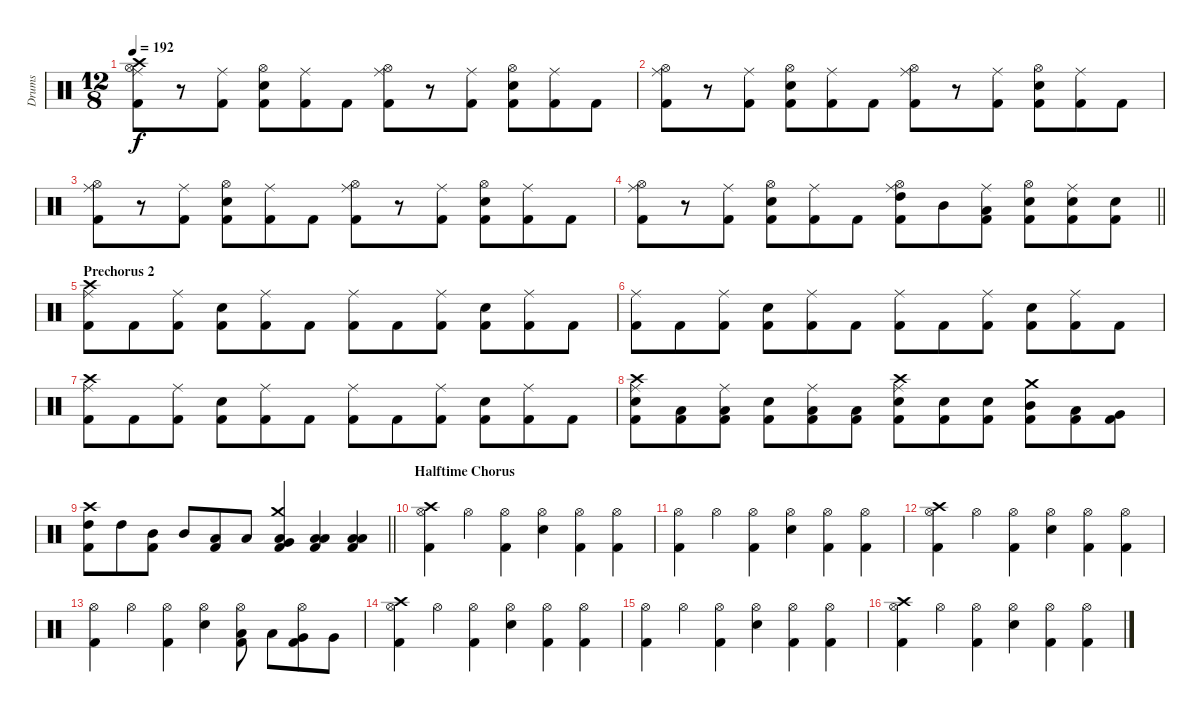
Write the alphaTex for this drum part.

\track ("Drums" "Drums") {instrument percussion}
\staff {score}
\articulation defaults
\ts (12 8)
\tempo 192
\clef neutral
\ks c
("Crash high (hit)" "Ride (middle)" "Hi-Hat (open)" "Kick (hit) 2").8{dy f} r.8 ("Ride (middle)" "Kick (hit) 2").8 ("Hi-Hat (open)" "Snare (hit) 2" "Kick (hit) 2").8 ("Ride (middle)" "Kick (hit) 2").8 "Kick (hit) 2".8 ("Ride (middle)" "Hi-Hat (open)" "Kick (hit) 2").8 r.8 ("Ride (middle)" "Kick (hit) 2").8 ("Hi-Hat (open)" "Snare (hit) 2" "Kick (hit) 2").8 ("Ride (middle)" "Kick (hit) 2").8 "Kick (hit) 2".8 |
("Ride (middle)" "Hi-Hat (open)" "Kick (hit) 2").8 r.8 ("Ride (middle)" "Kick (hit) 2").8 ("Hi-Hat (open)" "Snare (hit) 2" "Kick (hit) 2").8 ("Ride (middle)" "Kick (hit) 2").8 "Kick (hit) 2".8 ("Ride (middle)" "Hi-Hat (open)" "Kick (hit) 2").8 r.8 ("Ride (middle)" "Kick (hit) 2").8 ("Hi-Hat (open)" "Snare (hit) 2" "Kick (hit) 2").8 ("Ride (middle)" "Kick (hit) 2").8 "Kick (hit) 2".8 |
("Ride (middle)" "Hi-Hat (open)" "Kick (hit) 2").8 r.8 ("Ride (middle)" "Kick (hit) 2").8 ("Hi-Hat (open)" "Snare (hit) 2" "Kick (hit) 2").8 ("Ride (middle)" "Kick (hit) 2").8 "Kick (hit) 2".8 ("Ride (middle)" "Hi-Hat (open)" "Kick (hit) 2").8 r.8 ("Ride (middle)" "Kick (hit) 2").8 ("Hi-Hat (open)" "Snare (hit) 2" "Kick (hit) 2").8 ("Ride (middle)" "Kick (hit) 2").8 "Kick (hit) 2".8 |
\barLineRight lightlight
("Ride (middle)" "Hi-Hat (open)" "Kick (hit) 2").8 r.8 ("Ride (middle)" "Kick (hit) 2").8 ("Hi-Hat (open)" "Snare (hit) 2" "Kick (hit) 2").8 ("Ride (middle)" "Kick (hit) 2").8 "Kick (hit) 2".8 ("Ride (middle)" "Hi-Hat (open)" "High Tom (hit)" "Kick (hit) 2").8 "Mid Tom (hit)".8 ("Ride (middle)" "Low Tom (hit)" "Kick (hit) 2").8 ("Hi-Hat (open)" "Snare (hit) 2" "Kick (hit) 2").8 ("Ride (middle)" "Snare (hit) 2" "Kick (hit) 2").8 ("Snare (hit) 2" "Kick (hit) 2").8 |
\section ("" "Prechorus 2")
("Crash high (hit)" "Ride (middle)" "Kick (hit) 2").8 "Kick (hit) 2".8 ("Ride (middle)" "Kick (hit) 2").8 ("Snare (hit) 2" "Kick (hit) 2").8 ("Ride (middle)" "Kick (hit) 2").8 "Kick (hit) 2".8 ("Ride (middle)" "Kick (hit) 2").8 "Kick (hit) 2".8 ("Ride (middle)" "Kick (hit) 2").8 ("Snare (hit) 2" "Kick (hit) 2").8 ("Ride (middle)" "Kick (hit) 2").8 "Kick (hit) 2".8 |
("Ride (middle)" "Kick (hit) 2").8 "Kick (hit) 2".8 ("Ride (middle)" "Kick (hit) 2").8 ("Snare (hit) 2" "Kick (hit) 2").8 ("Ride (middle)" "Kick (hit) 2").8 "Kick (hit) 2".8 ("Ride (middle)" "Kick (hit) 2").8 "Kick (hit) 2".8 ("Ride (middle)" "Kick (hit) 2").8 ("Snare (hit) 2" "Kick (hit) 2").8 ("Ride (middle)" "Kick (hit) 2").8 "Kick (hit) 2".8 |
("Crash high (hit)" "Ride (middle)" "Kick (hit) 2").8 "Kick (hit) 2".8 ("Ride (middle)" "Kick (hit) 2").8 ("Snare (hit) 2" "Kick (hit) 2").8 ("Ride (middle)" "Kick (hit) 2").8 "Kick (hit) 2".8 ("Ride (middle)" "Kick (hit) 2").8 "Kick (hit) 2".8 ("Ride (middle)" "Kick (hit) 2").8 ("Snare (hit) 2" "Kick (hit) 2").8 ("Ride (middle)" "Kick (hit) 2").8 "Kick (hit) 2".8 |
("Crash high (hit)" "Ride (middle)" "Snare (hit) 2" "Kick (hit) 2").8 ("Low Floor Tom (hit)" "Kick (hit) 2").8 ("Ride (middle)" "Low Floor Tom (hit)" "Kick (hit) 2").8 ("Snare (hit) 2" "Kick (hit) 2").8 ("Ride (middle)" "Low Tom (hit)" "Kick (hit) 2").8 ("Low Tom (hit)" "Kick (hit) 2").8 ("Crash high (hit)" "Ride (middle)" "Snare (hit) 2" "Kick (hit) 2").8 ("Snare (hit) 2" "Kick (hit) 2").8 ("Snare (hit) 2" "Kick (hit) 2").8 ("Crash medium (hit)" "Mid Tom (hit)" "Kick (hit) 2").8 ("Low Tom (hit)" "Kick (hit) 2").8 ("Very Low Tom (hit)" "Kick (hit) 2").8 |
\barLineRight lightlight
("Crash high (hit)" "High Tom (hit)" "Kick (hit) 2").8 "High Tom (hit)".8 ("Mid Tom (hit)" "Kick (hit) 2").8 "Mid Tom (hit)".8 ("Low Tom (hit)" "Kick (hit) 2").8 "Low Tom (hit)".8 ("Crash medium (hit)" "Very Low Tom (hit)" "Low Floor Tom (hit)" "Kick (hit) 2").4 ("Low Tom (hit)" "Low Floor Tom (hit)" "Kick (hit) 2").4 ("Low Tom (hit)" "Low Floor Tom (hit)" "Kick (hit) 2").4 |
\section ("" "Halftime Chorus")
("Crash high (hit)" "Hi-Hat (open)" "Kick (hit) 2").4 "Hi-Hat (open)".4 ("Hi-Hat (open)" "Kick (hit) 2").4 ("Hi-Hat (open)" "Snare (hit) 2").4 ("Hi-Hat (open)" "Kick (hit) 2").4 ("Hi-Hat (open)" "Kick (hit) 2").4 |
("Hi-Hat (open)" "Kick (hit) 2").4 "Hi-Hat (open)".4 ("Hi-Hat (open)" "Kick (hit) 2").4 ("Hi-Hat (open)" "Snare (hit) 2").4 ("Hi-Hat (open)" "Kick (hit) 2").4 ("Hi-Hat (open)" "Kick (hit) 2").4 |
("Crash high (hit)" "Hi-Hat (open)" "Kick (hit) 2").4 "Hi-Hat (open)".4 ("Hi-Hat (open)" "Kick (hit) 2").4 ("Hi-Hat (open)" "Snare (hit) 2").4 ("Hi-Hat (open)" "Kick (hit) 2").4 ("Hi-Hat (open)" "Kick (hit) 2").4 |
("Hi-Hat (open)" "Kick (hit) 2").4 "Hi-Hat (open)".4 ("Hi-Hat (open)" "Kick (hit) 2").4 ("Hi-Hat (open)" "Snare (hit) 2").4 ("Hi-Hat (open)" "Low Tom (hit)" "Kick (hit) 2").8 "Low Tom (hit)".8 ("Hi-Hat (open)" "Very Low Tom (hit)" "Kick (hit) 2").8 "Very Low Tom (hit)".8 |
("Crash high (hit)" "Hi-Hat (open)" "Kick (hit) 2").4 "Hi-Hat (open)".4 ("Hi-Hat (open)" "Kick (hit) 2").4 ("Hi-Hat (open)" "Snare (hit) 2").4 ("Hi-Hat (open)" "Kick (hit) 2").4 ("Hi-Hat (open)" "Kick (hit) 2").4 |
("Hi-Hat (open)" "Kick (hit) 2").4 "Hi-Hat (open)".4 ("Hi-Hat (open)" "Kick (hit) 2").4 ("Hi-Hat (open)" "Snare (hit) 2").4 ("Hi-Hat (open)" "Kick (hit) 2").4 ("Hi-Hat (open)" "Kick (hit) 2").4 |
("Crash high (hit)" "Hi-Hat (open)" "Kick (hit) 2").4 "Hi-Hat (open)".4 ("Hi-Hat (open)" "Kick (hit) 2").4 ("Hi-Hat (open)" "Snare (hit) 2").4 ("Hi-Hat (open)" "Kick (hit) 2").4 ("Hi-Hat (open)" "Kick (hit) 2").4
